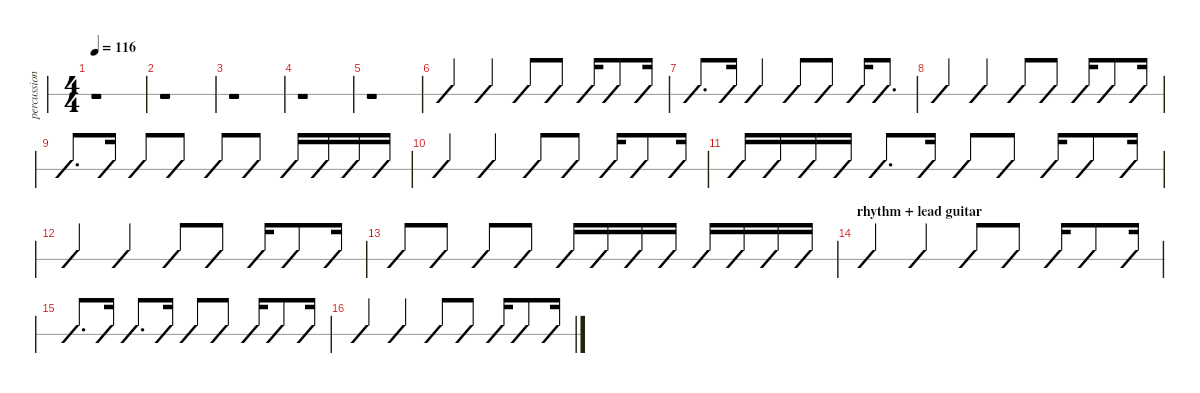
\defaultSystemsLayout 4
\hideDynamics
\bracketExtendMode nobrackets
\track ("Drums" "percussion") {instrument percussion}
\staff {slash}
\articulation defaults
\voice
\ts (4 4)
\tempo 116
\clef neutral
\ks c
r.1{dy f} |
r.1 |
r.1 |
r.1 |
r.1 |
("Crash high (hit)" "Kick (hit) 2").4 "Crash high (hit)".4 ("Crash high (hit)" "Snare (hit) 2").8 "Kick (hit) 2".8 "Crash high (hit)".16 "Kick (hit) 2".8 "Kick (hit) 2".16 |
("Crash high (hit)" "Kick (hit) 2").8{d} "Kick (hit) 2".16 "Crash high (hit)".4 ("Crash high (hit)" "Snare (hit) 2").8 "Kick (hit) 2".8 "Crash high (hit)".16 "Kick (hit) 2".8{d} |
("Crash high (hit)" "Kick (hit) 2").4 "Crash high (hit)".4 ("Crash high (hit)" "Snare (hit) 2").8 "Kick (hit) 2".8 "Crash high (hit)".16 "Kick (hit) 2".8 "Kick (hit) 2".16 |
("Crash high (hit)" "Kick (hit) 2").8{d} "Kick (hit) 2".16 "Crash high (hit)".8 "Kick (hit) 2".8 ("Crash high (hit)" "Snare (hit) 2").8 "Kick (hit) 2".8 ("Crash high (hit)" "Snare (hit) 2").16 "Kick (hit) 2".16 "Snare (hit) 2".16 "Snare (hit) 2".16 |
("Crash high (hit)" "Kick (hit) 2").4 ("Crash high (hit)" "Snare (hit) 2").4 "Crash high (hit)".8 "Kick (hit) 2".8 ("Crash high (hit)" "Snare (hit) 2").16 "Kick (hit) 2".8 "Kick (hit) 2".16 |
("Crash high (hit)" "Kick (hit) 2").16 "Snare (hit) 2".16 "Snare (hit) 2".16 "Kick (hit) 2".16 ("Crash high (hit)" "Snare (hit) 2").8{d} "Snare (hit) 2".16 "Crash high (hit)".8 "Kick (hit) 2".8 ("Crash high (hit)" "Snare (hit) 2").16 "Kick (hit) 2".8 "Kick (hit) 2".16 |
("Crash high (hit)" "Kick (hit) 2").4 ("Crash high (hit)" "Snare (hit) 2").4 "Crash high (hit)".8 "Kick (hit) 2".8 ("Crash high (hit)" "Snare (hit) 2").16 "Kick (hit) 2".8 "Kick (hit) 2".16 |
("Hi-Hat (open)" "Snare (hit) 2").8 ("Low Floor Tom (hit)" "Kick (hit) 2" "Very Low Tom (hit)").8 ("Low Floor Tom (hit)" "Kick (hit) 2" "Very Low Tom (hit)").8 ("Low Floor Tom (hit)" "Kick (hit) 2" "Very Low Tom (hit)").8 "Snare (hit) 2".16 "Kick (hit) 2".16 "Snare (hit) 2".16 "Snare (hit) 2".16 "Snare (hit) 2".16 "Kick (hit) 2".16 "Snare (hit) 2".16 "Snare (hit) 2".16 |
\section ("" "rhythm + lead guitar")
("Crash medium (hit)" "Kick (hit) 2" "Crash high (hit)").4 ("Crash medium (hit)" "Snare (hit) 2").4 "Crash medium (hit)".8 "Kick (hit) 2".8 ("Crash medium (hit)" "Snare (hit) 2").16 "Kick (hit) 2".8 "Kick (hit) 2".16 |
("Crash medium (hit)" "Kick (hit) 2").8{d} "Kick (hit) 2".16 ("Crash medium (hit)" "Snare (hit) 2").8{d} "Snare (hit) 2".16 "Crash medium (hit)".8 "Kick (hit) 2".8 ("Crash medium (hit)" "Snare (hit) 2").16 "Kick (hit) 2".8 "Kick (hit) 2".16 |
("Crash medium (hit)" "Kick (hit) 2" "Crash high (hit)").4 ("Crash medium (hit)" "Snare (hit) 2").4 "Crash medium (hit)".8 "Kick (hit) 2".8 ("Crash medium (hit)" "Snare (hit) 2").16 "Kick (hit) 2".8 "Kick (hit) 2".16
\voice
\clef neutral
\ottava regular
\simile none
\ks c
r.4{dy mf} r.4 r.4 r.4 |
r.4 r.4 r.4 r.4 |
r.4 r.4 r.4 r.4 |
r.4 r.4 r.4 r.4 |
r.4 r.4 r.4 r.4 |
r.4 r.4 r.4 r.4 |
r.4 r.4 r.4 r.4 |
r.4 r.4 r.4 r.4 |
r.4 r.4 r.4 r.4 |
r.4 r.4 r.4 r.4 |
r.4 r.4 r.4 r.4 |
r.4 r.4 r.4 r.4 |
r.4 r.4 r.4 r.4 |
r.4 r.4 r.4 r.4 |
r.4 r.4 r.4 r.4 |
r.4 r.4 r.4 r.4
